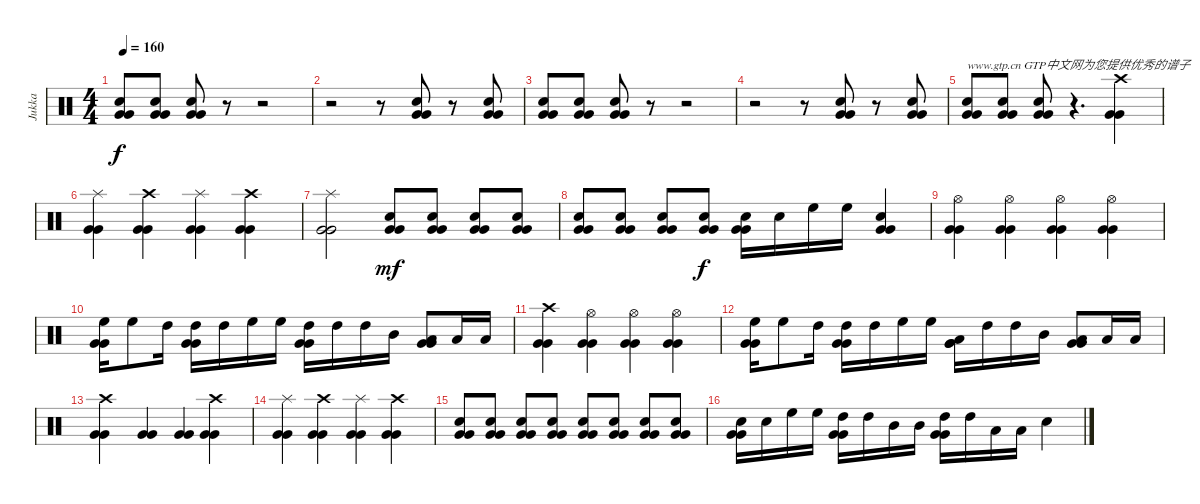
\track ("Jukka" "Jukka") {instrument percussion}
\staff {score}
\articulation defaults
\ts (4 4)
\tempo 160
\clef neutral
\ks c
("Electric Snare (hit)" "Very Low Tom (hit)" "Very Low Tom (hit)").8{dy f} ("Electric Snare (hit)" "Very Low Tom (hit)" "Very Low Tom (hit)").8 ("Electric Snare (hit)" "Very Low Tom (hit)" "Very Low Tom (hit)").8 r.8 r.2 |
r.2 r.8 ("Electric Snare (hit)" "Very Low Tom (hit)" "Very Low Tom (hit)").8 r.8 ("Electric Snare (hit)" "Very Low Tom (hit)" "Very Low Tom (hit)").8 |
("Electric Snare (hit)" "Very Low Tom (hit)" "Very Low Tom (hit)").8 ("Electric Snare (hit)" "Very Low Tom (hit)" "Very Low Tom (hit)").8 ("Electric Snare (hit)" "Very Low Tom (hit)" "Very Low Tom (hit)").8 r.8 r.2 |
r.2 r.8 ("Electric Snare (hit)" "Very Low Tom (hit)" "Very Low Tom (hit)").8 r.8 ("Electric Snare (hit)" "Very Low Tom (hit)" "Very Low Tom (hit)").8 |
("Electric Snare (hit)" "Very Low Tom (hit)" "Very Low Tom (hit)").8{txt "www.gtp.cn GTP中文网为您提供优秀的谱子"} ("Electric Snare (hit)" "Very Low Tom (hit)" "Very Low Tom (hit)").8 ("Electric Snare (hit)" "Very Low Tom (hit)" "Very Low Tom (hit)").8 r.4{d} ("Crash high (hit)" "Very Low Tom (hit)" "Very Low Tom (hit)").4 |
("Splash (hit)" "Very Low Tom (hit)" "Very Low Tom (hit)").4 ("Crash high (hit)" "Very Low Tom (hit)" "Very Low Tom (hit)").4 ("Splash (hit)" "Very Low Tom (hit)" "Very Low Tom (hit)").4 ("Crash high (hit)" "Very Low Tom (hit)" "Very Low Tom (hit)").4 |
("Splash (hit)" "Very Low Tom (hit)" "Very Low Tom (hit)").2 ("Electric Snare (hit)" "Very Low Tom (hit)" "Very Low Tom (hit)").8{dy mf} ("Electric Snare (hit)" "Very Low Tom (hit)" "Very Low Tom (hit)").8 ("Electric Snare (hit)" "Very Low Tom (hit)" "Very Low Tom (hit)").8 ("Electric Snare (hit)" "Very Low Tom (hit)" "Very Low Tom (hit)").8 |
("Electric Snare (hit)" "Very Low Tom (hit)" "Very Low Tom (hit)").8 ("Electric Snare (hit)" "Very Low Tom (hit)" "Very Low Tom (hit)").8 ("Electric Snare (hit)" "Very Low Tom (hit)" "Very Low Tom (hit)").8 ("Electric Snare (hit)" "Very Low Tom (hit)" "Very Low Tom (hit)").8{dy f} ("Electric Snare (hit)" "Very Low Tom (hit)" "Very Low Tom (hit)").16 "Electric Snare (hit)".16 "High Floor Tom (hit)".16 "High Floor Tom (hit)".16 ("Electric Snare (hit)" "Very Low Tom (hit)" "Very Low Tom (hit)").4 |
("Hi-Hat (open)" "Very Low Tom (hit)" "Very Low Tom (hit)").4 ("Hi-Hat (open)" "Very Low Tom (hit)" "Very Low Tom (hit)").4 ("Hi-Hat (open)" "Very Low Tom (hit)" "Very Low Tom (hit)").4 ("Hi-Hat (open)" "Very Low Tom (hit)" "Very Low Tom (hit)").4 |
("High Floor Tom (hit)" "Very Low Tom (hit)" "Very Low Tom (hit)").16 "High Floor Tom (hit)".8 "High Tom (hit)".16 ("High Tom (hit)" "Very Low Tom (hit)" "Very Low Tom (hit)").16 "High Tom (hit)".16 "High Floor Tom (hit)".16 "High Floor Tom (hit)".16 ("High Tom (hit)" "Very Low Tom (hit)" "Very Low Tom (hit)").16 "High Tom (hit)".16 "High Tom (hit)".16 "Mid Tom (hit)".16 ("Low Tom (hit)" "Very Low Tom (hit)" "Very Low Tom (hit)").8 "Low Tom (hit)".16 "Low Tom (hit)".16 |
("Crash high (hit)" "Very Low Tom (hit)" "Very Low Tom (hit)").4 ("Hi-Hat (open)" "Very Low Tom (hit)" "Very Low Tom (hit)").4 ("Hi-Hat (open)" "Very Low Tom (hit)" "Very Low Tom (hit)").4 ("Hi-Hat (open)" "Very Low Tom (hit)" "Very Low Tom (hit)").4 |
("High Floor Tom (hit)" "Very Low Tom (hit)" "Very Low Tom (hit)").16 "High Floor Tom (hit)".8 "High Tom (hit)".16 ("High Tom (hit)" "Very Low Tom (hit)" "Very Low Tom (hit)").16 "High Tom (hit)".16 "High Floor Tom (hit)".16 "High Floor Tom (hit)".16 ("Low Tom (hit)" "Very Low Tom (hit)" "Very Low Tom (hit)").16 "High Tom (hit)".16 "High Tom (hit)".16 "Mid Tom (hit)".16 ("Low Tom (hit)" "Very Low Tom (hit)" "Very Low Tom (hit)").8 "Low Tom (hit)".16 "Low Tom (hit)".16 |
("Crash high (hit)" "Very Low Tom (hit)" "Very Low Tom (hit)").4 ("Very Low Tom (hit)" "Very Low Tom (hit)").4 ("Very Low Tom (hit)" "Very Low Tom (hit)").4 ("Crash high (hit)" "Very Low Tom (hit)" "Very Low Tom (hit)").4 |
("Splash (hit)" "Very Low Tom (hit)" "Very Low Tom (hit)").4 ("Crash high (hit)" "Very Low Tom (hit)" "Very Low Tom (hit)").4 ("Splash (hit)" "Very Low Tom (hit)" "Very Low Tom (hit)").4 ("Crash high (hit)" "Very Low Tom (hit)" "Very Low Tom (hit)").4 |
("Electric Snare (hit)" "Very Low Tom (hit)" "Very Low Tom (hit)").8 ("Electric Snare (hit)" "Very Low Tom (hit)" "Very Low Tom (hit)").8 ("Electric Snare (hit)" "Very Low Tom (hit)" "Very Low Tom (hit)").8 ("Electric Snare (hit)" "Very Low Tom (hit)" "Very Low Tom (hit)").8 ("Electric Snare (hit)" "Very Low Tom (hit)" "Very Low Tom (hit)").8 ("Electric Snare (hit)" "Very Low Tom (hit)" "Very Low Tom (hit)").8 ("Electric Snare (hit)" "Very Low Tom (hit)" "Very Low Tom (hit)").8 ("Electric Snare (hit)" "Very Low Tom (hit)" "Very Low Tom (hit)").8 |
("Electric Snare (hit)" "Very Low Tom (hit)" "Very Low Tom (hit)").16 "Electric Snare (hit)".16 "High Floor Tom (hit)".16 "High Floor Tom (hit)".16 ("High Tom (hit)" "Very Low Tom (hit)" "Very Low Tom (hit)").16 "High Tom (hit)".16 "Mid Tom (hit)".16 "Mid Tom (hit)".16 ("High Tom (hit)" "Very Low Tom (hit)" "Very Low Tom (hit)").16 "High Tom (hit)".16 "Low Tom (hit)".16 "Low Tom (hit)".16 "Electric Snare (hit)".4
